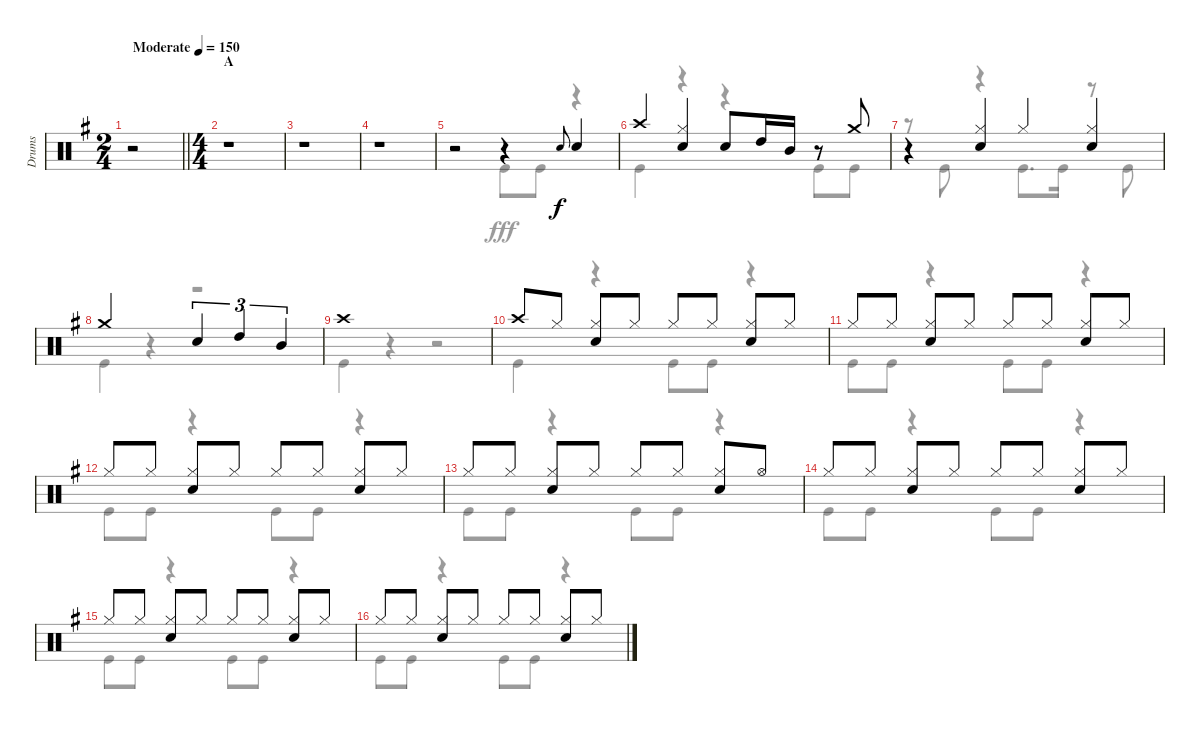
\track ("Drums" "Drums") {instrument percussion}
\staff {score}
\articulation defaults
\voice
\ts (2 4)
\tempo (150 "Moderate")
\clef neutral
\barLineRight lightlight
\ks g
r.2{dy f} |
\ts (4 4)
\section ("" "A")
r.1 |
r.1 |
r.1 |
r.2 r.4 "Snare (hit) 2".8{gr onbeat} "Snare (hit) 2".4 |
"Crash high (hit)".4 ("Hi-Hat (closed)" "Snare (hit) 2").4 "Snare (hit) 2".8 "High Tom (hit)".16 "Mid Tom (hit)".16 r.8 "Crash medium (hit)".8 |
r.4 ("Hi-Hat (closed)" "Snare (hit) 2").4 "Hi-Hat (closed)".4 ("Hi-Hat (closed)" "Snare (hit) 2").4 |
"Crash medium (hit)".2 "Snare (hit) 2".4{tu (3 2)} "High Tom (hit)".4{tu (3 2)} "Mid Tom (hit)".4{tu (3 2)} |
"Crash high (hit)".1 |
"Crash high (hit)".8 "Hi-Hat (closed)".8 ("Hi-Hat (closed)" "Snare (hit) 2").8 "Hi-Hat (closed)".8 "Hi-Hat (closed)".8 "Hi-Hat (closed)".8 ("Hi-Hat (closed)" "Snare (hit) 2").8 "Hi-Hat (closed)".8 |
"Hi-Hat (closed)".8 "Hi-Hat (closed)".8 ("Hi-Hat (closed)" "Snare (hit) 2").8 "Hi-Hat (closed)".8 "Hi-Hat (closed)".8 "Hi-Hat (closed)".8 ("Hi-Hat (closed)" "Snare (hit) 2").8 "Hi-Hat (closed)".8 |
"Hi-Hat (closed)".8 "Hi-Hat (closed)".8 ("Hi-Hat (closed)" "Snare (hit) 2").8 "Hi-Hat (closed)".8 "Hi-Hat (closed)".8 "Hi-Hat (closed)".8 ("Hi-Hat (closed)" "Snare (hit) 2").8 "Hi-Hat (closed)".8 |
"Hi-Hat (closed)".8 "Hi-Hat (closed)".8 ("Hi-Hat (closed)" "Snare (hit) 2").8 "Hi-Hat (closed)".8 "Hi-Hat (closed)".8 "Hi-Hat (closed)".8 ("Hi-Hat (closed)" "Snare (hit) 2").8 "Hi-Hat (open)".8 |
"Hi-Hat (closed)".8 "Hi-Hat (closed)".8 ("Hi-Hat (closed)" "Snare (hit) 2").8 "Hi-Hat (closed)".8 "Hi-Hat (closed)".8 "Hi-Hat (closed)".8 ("Hi-Hat (closed)" "Snare (hit) 2").8 "Hi-Hat (closed)".8 |
"Hi-Hat (closed)".8 "Hi-Hat (closed)".8 ("Hi-Hat (closed)" "Snare (hit) 2").8 "Hi-Hat (closed)".8 "Hi-Hat (closed)".8 "Hi-Hat (closed)".8 ("Hi-Hat (closed)" "Snare (hit) 2").8 "Hi-Hat (closed)".8 |
"Hi-Hat (closed)".8 "Hi-Hat (closed)".8 ("Hi-Hat (closed)" "Snare (hit) 2").8 "Hi-Hat (closed)".8 "Hi-Hat (closed)".8 "Hi-Hat (closed)".8 ("Hi-Hat (closed)" "Snare (hit) 2").8 "Hi-Hat (closed)".8
\voice
\clef neutral
\ottava regular
\simile none
\barLineRight lightlight
\ks g
r.2{dy fff} |
r.1 |
r.1 |
r.1 |
r.2 "Kick (hit)".8 "Kick (hit)".8 r.4 |
"Kick (hit)".4 r.4 r.4 "Kick (hit)".8 "Kick (hit)".8 |
r.8 "Kick (hit)".8 r.4 "Kick (hit)".8{d} "Kick (hit)".16 r.8 "Kick (hit)".8 |
"Kick (hit)".4 r.4 r.2 |
"Kick (hit)".4 r.4 r.2 |
"Kick (hit)".4 r.4 "Kick (hit)".8 "Kick (hit)".8 r.4 |
"Kick (hit)".8 "Kick (hit)".8 r.4 "Kick (hit)".8 "Kick (hit)".8 r.4 |
"Kick (hit)".8 "Kick (hit)".8 r.4 "Kick (hit)".8 "Kick (hit)".8 r.4 |
"Kick (hit)".8 "Kick (hit)".8 r.4 "Kick (hit)".8 "Kick (hit)".8 r.4 |
"Kick (hit)".8 "Kick (hit)".8 r.4 "Kick (hit)".8 "Kick (hit)".8 r.4 |
"Kick (hit)".8 "Kick (hit)".8 r.4 "Kick (hit)".8 "Kick (hit)".8 r.4 |
"Kick (hit)".8 "Kick (hit)".8 r.4 "Kick (hit)".8 "Kick (hit)".8 r.4
